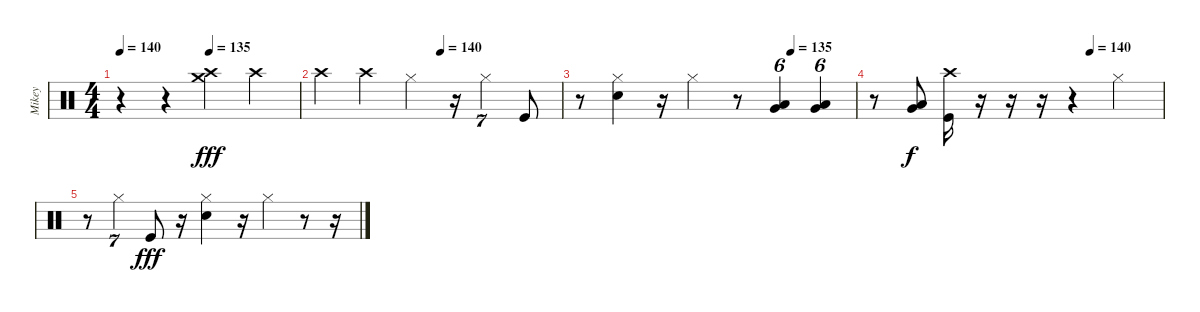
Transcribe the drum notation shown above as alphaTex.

\track ("Mikey" "Mikey") {instrument percussion}
\staff {score}
\articulation defaults
\ts (4 4)
\tempo 140
\tempo (135 0.5)
\clef neutral
\ks c
r.4{dy fff} r.4 ("Crash medium (hit)" "Crash high (hit)").4 "Crash high (hit)".4 |
\tempo (140 0.5)
"Crash high (hit)".4 "Crash high (hit)".4 "Hi-Hat (closed)".4 r.16 "Hi-Hat (closed)".4{tu (7 4)} "Kick (hit)".8 |
\tempo (135 0.7677083333333333)
r.8 ("Hi-Hat (closed)" "Electric Snare (hit)").4 r.16 "Hi-Hat (closed)".4 r.8 ("Very Low Tom (hit)" "Low Floor Tom (hit)").4{tu (6 4)} ("Very Low Tom (hit)" "Low Floor Tom (hit)").4{tu (6 4)} |
\tempo (140 0.75)
r.8 ("Very Low Tom (hit)" "Low Floor Tom (hit)").8{dy f} ("Crash high (hit)" "Kick (hit)").16 r.16 r.16 r.16 r.4 "Hi-Hat (closed)".4 |
r.8 "Hi-Hat (closed)".4{tu (7 4)} "Kick (hit)".8{dy fff} r.16 ("Hi-Hat (closed)" "Electric Snare (hit)").4 r.16 "Hi-Hat (closed)".4 r.8 r.16
